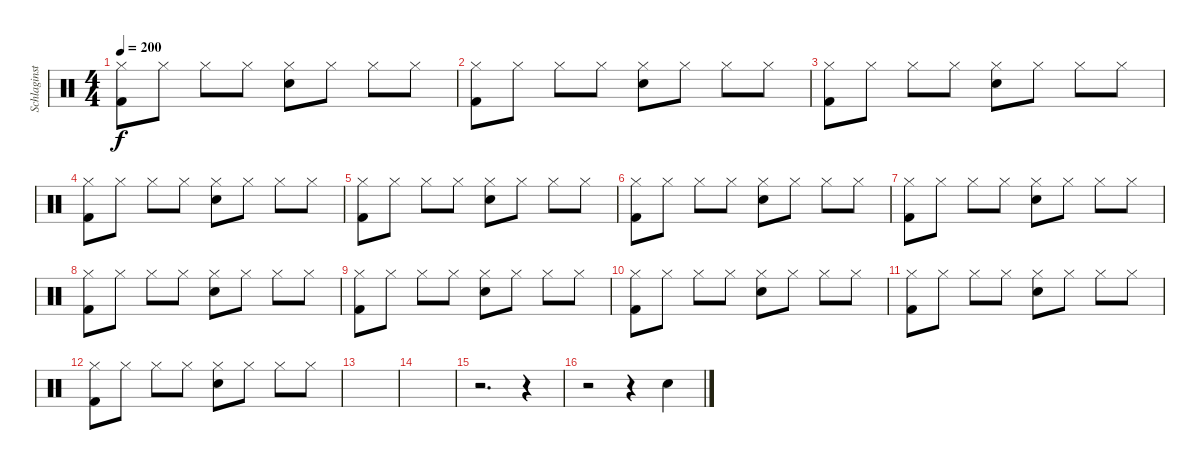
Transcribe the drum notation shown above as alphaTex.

\track ("Schlaginstrumente - Auswahl" "Schlaginst") {instrument percussion}
\staff {score}
\articulation defaults
\ts (4 4)
\tempo 200
\clef neutral
\ks c
("Hi-Hat (closed)" "Kick (hit) 2").8{dy f} "Hi-Hat (closed)".8 "Hi-Hat (closed)".8 "Hi-Hat (closed)".8 ("Hi-Hat (closed)" "Snare (hit) 2").8 "Hi-Hat (closed)".8 "Hi-Hat (closed)".8 "Hi-Hat (closed)".8 |
("Hi-Hat (closed)" "Kick (hit) 2").8 "Hi-Hat (closed)".8 "Hi-Hat (closed)".8 "Hi-Hat (closed)".8 ("Hi-Hat (closed)" "Snare (hit) 2").8 "Hi-Hat (closed)".8 "Hi-Hat (closed)".8 "Hi-Hat (closed)".8 |
("Hi-Hat (closed)" "Kick (hit) 2").8 "Hi-Hat (closed)".8 "Hi-Hat (closed)".8 "Hi-Hat (closed)".8 ("Hi-Hat (closed)" "Snare (hit) 2").8 "Hi-Hat (closed)".8 "Hi-Hat (closed)".8 "Hi-Hat (closed)".8 |
("Hi-Hat (closed)" "Kick (hit) 2").8 "Hi-Hat (closed)".8 "Hi-Hat (closed)".8 "Hi-Hat (closed)".8 ("Hi-Hat (closed)" "Snare (hit) 2").8 "Hi-Hat (closed)".8 "Hi-Hat (closed)".8 "Hi-Hat (closed)".8 |
("Hi-Hat (closed)" "Kick (hit) 2").8 "Hi-Hat (closed)".8 "Hi-Hat (closed)".8 "Hi-Hat (closed)".8 ("Hi-Hat (closed)" "Snare (hit) 2").8 "Hi-Hat (closed)".8 "Hi-Hat (closed)".8 "Hi-Hat (closed)".8 |
("Hi-Hat (closed)" "Kick (hit) 2").8 "Hi-Hat (closed)".8 "Hi-Hat (closed)".8 "Hi-Hat (closed)".8 ("Hi-Hat (closed)" "Snare (hit) 2").8 "Hi-Hat (closed)".8 "Hi-Hat (closed)".8 "Hi-Hat (closed)".8 |
("Hi-Hat (closed)" "Kick (hit) 2").8 "Hi-Hat (closed)".8 "Hi-Hat (closed)".8 "Hi-Hat (closed)".8 ("Hi-Hat (closed)" "Snare (hit) 2").8 "Hi-Hat (closed)".8 "Hi-Hat (closed)".8 "Hi-Hat (closed)".8 |
("Hi-Hat (closed)" "Kick (hit) 2").8 "Hi-Hat (closed)".8 "Hi-Hat (closed)".8 "Hi-Hat (closed)".8 ("Hi-Hat (closed)" "Snare (hit) 2").8 "Hi-Hat (closed)".8 "Hi-Hat (closed)".8 "Hi-Hat (closed)".8 |
("Hi-Hat (closed)" "Kick (hit) 2").8 "Hi-Hat (closed)".8 "Hi-Hat (closed)".8 "Hi-Hat (closed)".8 ("Hi-Hat (closed)" "Snare (hit) 2").8 "Hi-Hat (closed)".8 "Hi-Hat (closed)".8 "Hi-Hat (closed)".8 |
("Hi-Hat (closed)" "Kick (hit) 2").8 "Hi-Hat (closed)".8 "Hi-Hat (closed)".8 "Hi-Hat (closed)".8 ("Hi-Hat (closed)" "Snare (hit) 2").8 "Hi-Hat (closed)".8 "Hi-Hat (closed)".8 "Hi-Hat (closed)".8 |
("Hi-Hat (closed)" "Kick (hit) 2").8 "Hi-Hat (closed)".8 "Hi-Hat (closed)".8 "Hi-Hat (closed)".8 ("Hi-Hat (closed)" "Snare (hit) 2").8 "Hi-Hat (closed)".8 "Hi-Hat (closed)".8 "Hi-Hat (closed)".8 |
("Hi-Hat (closed)" "Kick (hit) 2").8 "Hi-Hat (closed)".8 "Hi-Hat (closed)".8 "Hi-Hat (closed)".8 ("Hi-Hat (closed)" "Snare (hit) 2").8 "Hi-Hat (closed)".8 "Hi-Hat (closed)".8 "Hi-Hat (closed)".8 |
|
|
r.2{d} r.4 |
r.2 r.4 "Snare (hit) 2".4
